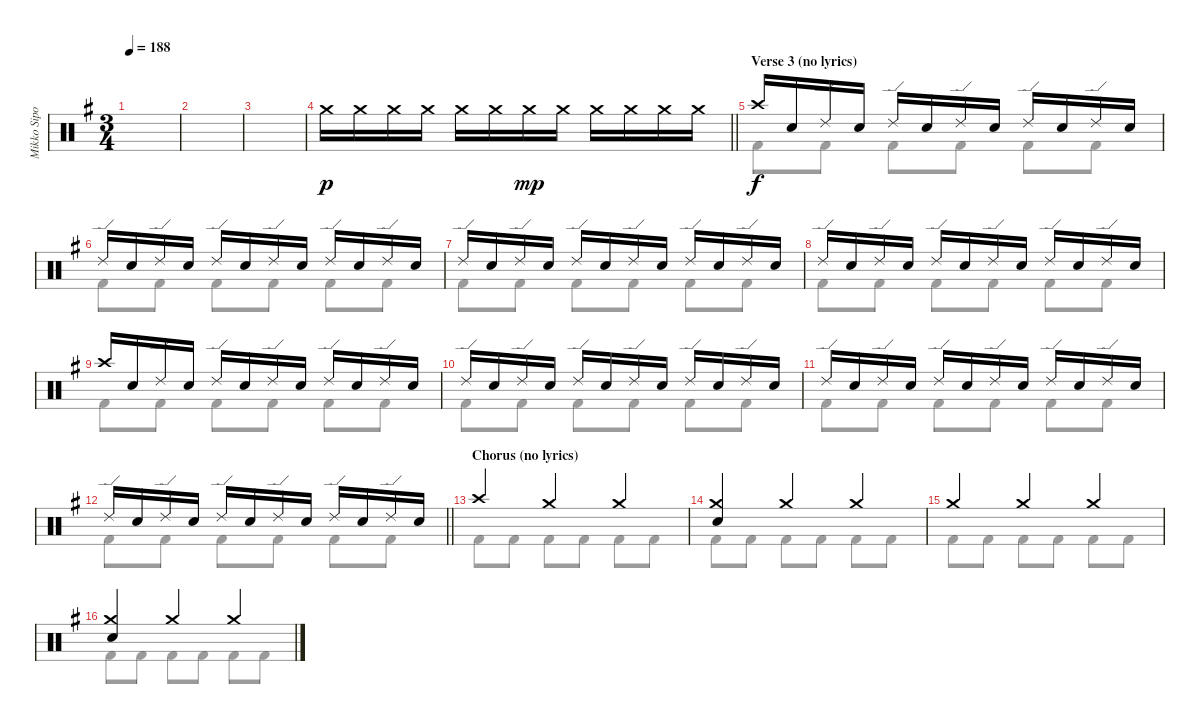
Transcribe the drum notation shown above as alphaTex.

\track ("Mikko Sipola (drums)" "Mikko Sipo") {instrument percussion}
\staff {score}
\articulation defaults
\voice
\ts (3 4)
\tempo 188
\clef neutral
\ks eminor
|
|
|
\barLineRight lightlight "Crash medium (hit)".16{dy p} "Crash medium (hit)".16 "Crash medium (hit)".16 "Crash medium (hit)".16 "Crash medium (hit)".16 "Crash medium (hit)".16 "Crash medium (hit)".16{dy mp} "Crash medium (hit)".16 "Crash medium (hit)".16 "Crash medium (hit)".16 "Crash medium (hit)".16 "Crash medium (hit)".16
|
\section ("" "Verse 3 (no lyrics)")
"Crash high (hit)".16{dy f} "Electric Snare (hit)".16 "Ride (edge) 2".16 "Electric Snare (hit)".16 "Ride (edge) 2".16 "Electric Snare (hit)".16 "Ride (edge) 2".16 "Electric Snare (hit)".16 "Ride (edge) 2".16 "Electric Snare (hit)".16 "Ride (edge) 2".16 "Electric Snare (hit)".16 |
"Ride (edge) 2".16 "Electric Snare (hit)".16 "Ride (edge) 2".16 "Electric Snare (hit)".16 "Ride (edge) 2".16 "Electric Snare (hit)".16 "Ride (edge) 2".16 "Electric Snare (hit)".16 "Ride (edge) 2".16 "Electric Snare (hit)".16 "Ride (edge) 2".16 "Electric Snare (hit)".16 |
"Ride (edge) 2".16 "Electric Snare (hit)".16 "Ride (edge) 2".16 "Electric Snare (hit)".16 "Ride (edge) 2".16 "Electric Snare (hit)".16 "Ride (edge) 2".16 "Electric Snare (hit)".16 "Ride (edge) 2".16 "Electric Snare (hit)".16 "Ride (edge) 2".16 "Electric Snare (hit)".16 |
"Ride (edge) 2".16 "Electric Snare (hit)".16 "Ride (edge) 2".16 "Electric Snare (hit)".16 "Ride (edge) 2".16 "Electric Snare (hit)".16 "Ride (edge) 2".16 "Electric Snare (hit)".16 "Ride (edge) 2".16 "Electric Snare (hit)".16 "Ride (edge) 2".16 "Electric Snare (hit)".16 |
"Crash high (hit)".16 "Electric Snare (hit)".16 "Ride (edge) 2".16 "Electric Snare (hit)".16 "Ride (edge) 2".16 "Electric Snare (hit)".16 "Ride (edge) 2".16 "Electric Snare (hit)".16 "Ride (edge) 2".16 "Electric Snare (hit)".16 "Ride (edge) 2".16 "Electric Snare (hit)".16 |
"Ride (edge) 2".16 "Electric Snare (hit)".16 "Ride (edge) 2".16 "Electric Snare (hit)".16 "Ride (edge) 2".16 "Electric Snare (hit)".16 "Ride (edge) 2".16 "Electric Snare (hit)".16 "Ride (edge) 2".16 "Electric Snare (hit)".16 "Ride (edge) 2".16 "Electric Snare (hit)".16 |
"Ride (edge) 2".16 "Electric Snare (hit)".16 "Ride (edge) 2".16 "Electric Snare (hit)".16 "Ride (edge) 2".16 "Electric Snare (hit)".16 "Ride (edge) 2".16 "Electric Snare (hit)".16 "Ride (edge) 2".16 "Electric Snare (hit)".16 "Ride (edge) 2".16 "Electric Snare (hit)".16 |
\barLineRight lightlight "Ride (edge) 2".16 "Electric Snare (hit)".16 "Ride (edge) 2".16 "Electric Snare (hit)".16 "Ride (edge) 2".16 "Electric Snare (hit)".16 "Ride (edge) 2".16 "Electric Snare (hit)".16 "Ride (edge) 2".16 "Electric Snare (hit)".16 "Ride (edge) 2".16 "Electric Snare (hit)".16
|
\section ("" "Chorus (no lyrics)")
"Crash high (hit)".4 "Crash medium (hit)".4 "Crash medium (hit)".4 |
("Crash medium (hit)" "Electric Snare (hit)").4 "Crash medium (hit)".4 "Crash medium (hit)".4 |
"Crash medium (hit)".4 "Crash medium (hit)".4 "Crash medium (hit)".4 |
("Crash medium (hit)" "Electric Snare (hit)").4 "Crash medium (hit)".4 "Crash medium (hit)".4
\voice
\clef neutral
\ottava regular
\simile none
\ks eminor
|
|
|
\barLineRight lightlight
|
"Kick (hit) 2".8 "Kick (hit) 2".8 "Kick (hit) 2".8 "Kick (hit) 2".8 "Kick (hit) 2".8 "Kick (hit) 2".8 |
"Kick (hit) 2".8 "Kick (hit) 2".8 "Kick (hit) 2".8 "Kick (hit) 2".8 "Kick (hit) 2".8 "Kick (hit) 2".8 |
"Kick (hit) 2".8 "Kick (hit) 2".8 "Kick (hit) 2".8 "Kick (hit) 2".8 "Kick (hit) 2".8 "Kick (hit) 2".8 |
"Kick (hit) 2".8 "Kick (hit) 2".8 "Kick (hit) 2".8 "Kick (hit) 2".8 "Kick (hit) 2".8 "Kick (hit) 2".8 |
"Kick (hit) 2".8 "Kick (hit) 2".8 "Kick (hit) 2".8 "Kick (hit) 2".8 "Kick (hit) 2".8 "Kick (hit) 2".8 |
"Kick (hit) 2".8 "Kick (hit) 2".8 "Kick (hit) 2".8 "Kick (hit) 2".8 "Kick (hit) 2".8 "Kick (hit) 2".8 |
"Kick (hit) 2".8 "Kick (hit) 2".8 "Kick (hit) 2".8 "Kick (hit) 2".8 "Kick (hit) 2".8 "Kick (hit) 2".8 |
\barLineRight lightlight "Kick (hit) 2".8 "Kick (hit) 2".8 "Kick (hit) 2".8 "Kick (hit) 2".8 "Kick (hit) 2".8 "Kick (hit) 2".8
|
"Kick (hit) 2".8 "Kick (hit) 2".8 "Kick (hit) 2".8 "Kick (hit) 2".8 "Kick (hit) 2".8 "Kick (hit) 2".8 |
"Kick (hit) 2".8 "Kick (hit) 2".8 "Kick (hit) 2".8 "Kick (hit) 2".8 "Kick (hit) 2".8 "Kick (hit) 2".8 |
"Kick (hit) 2".8 "Kick (hit) 2".8 "Kick (hit) 2".8 "Kick (hit) 2".8 "Kick (hit) 2".8 "Kick (hit) 2".8 |
"Kick (hit) 2".8 "Kick (hit) 2".8 "Kick (hit) 2".8 "Kick (hit) 2".8 "Kick (hit) 2".8 "Kick (hit) 2".8
